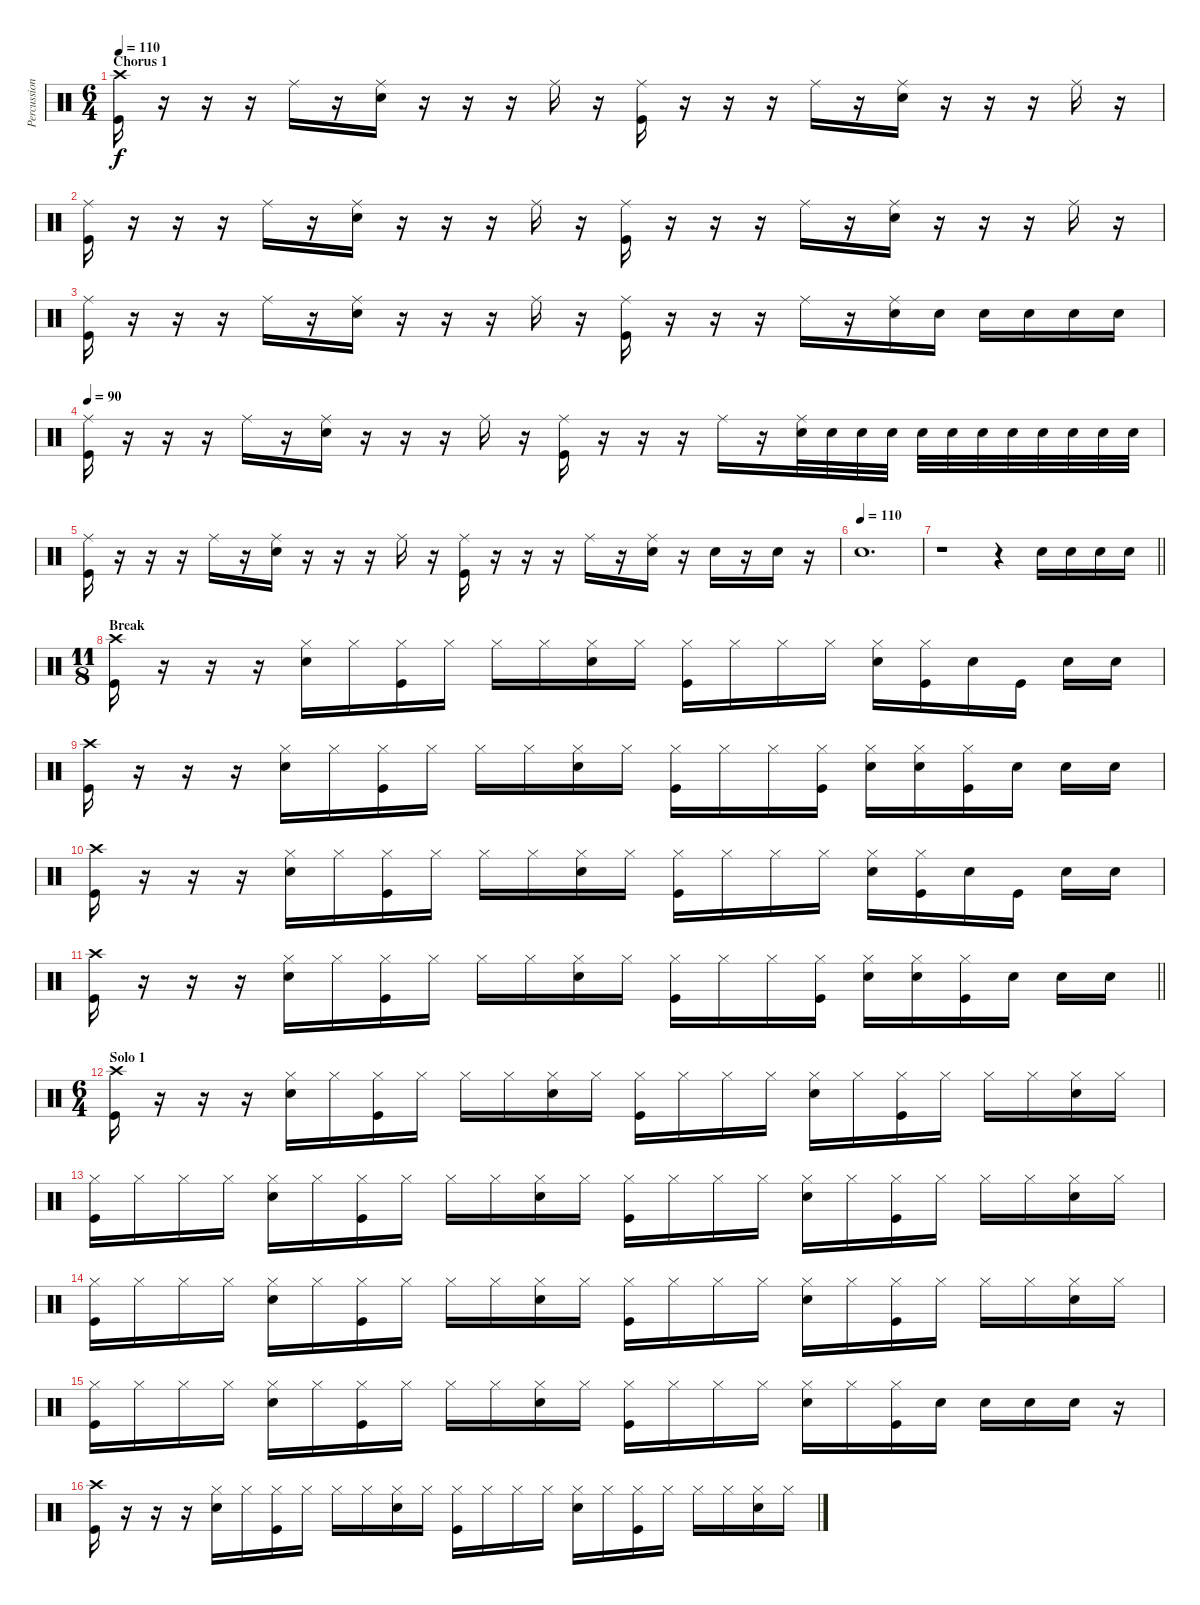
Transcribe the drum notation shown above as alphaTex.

\track ("Percussion 2" "Percussion") {instrument percussion}
\staff {score}
\articulation defaults
\ts (6 4)
\section ("" "Chorus 1")
\tempo 110
\clef neutral
\ks c
("Crash high (hit)" "Kick (hit)").16{dy f} r.16 r.16 r.16 "Ride (middle)".16 r.16 ("Ride (middle)" "Snare (hit) 2").16 r.16 r.16 r.16 "Ride (middle)".16 r.16 ("Ride (middle)" "Kick (hit)").16 r.16 r.16 r.16 "Ride (middle)".16 r.16 ("Ride (middle)" "Snare (hit) 2").16 r.16 r.16 r.16 "Ride (middle)".16 r.16 |
("Ride (middle)" "Kick (hit)").16 r.16 r.16 r.16 "Ride (middle)".16 r.16 ("Ride (middle)" "Snare (hit) 2").16 r.16 r.16 r.16 "Ride (middle)".16 r.16 ("Ride (middle)" "Kick (hit)").16 r.16 r.16 r.16 "Ride (middle)".16 r.16 ("Ride (middle)" "Snare (hit) 2").16 r.16 r.16 r.16 "Ride (middle)".16 r.16 |
("Ride (middle)" "Kick (hit)").16 r.16 r.16 r.16 "Ride (middle)".16 r.16 ("Ride (middle)" "Snare (hit) 2").16 r.16 r.16 r.16 "Ride (middle)".16 r.16 ("Ride (middle)" "Kick (hit)").16 r.16 r.16 r.16 "Ride (middle)".16 r.16 ("Ride (middle)" "Snare (hit) 2").16 "Snare (hit) 2".16 "Snare (hit) 2".16 "Snare (hit) 2".16 "Snare (hit) 2".16 "Snare (hit) 2".16 |
\tempo 90
("Ride (middle)" "Kick (hit)").16 r.16 r.16 r.16 "Ride (middle)".16 r.16 ("Ride (middle)" "Snare (hit) 2").16 r.16 r.16 r.16 "Ride (middle)".16 r.16 ("Ride (middle)" "Kick (hit)").16 r.16 r.16 r.16 "Ride (middle)".16 r.16 ("Ride (middle)" "Snare (hit) 2").32 "Snare (hit) 2".32 "Snare (hit) 2".32 "Snare (hit) 2".32 "Snare (hit) 2".32 "Snare (hit) 2".32 "Snare (hit) 2".32 "Snare (hit) 2".32 "Snare (hit) 2".32 "Snare (hit) 2".32 "Snare (hit) 2".32 "Snare (hit) 2".32 |
("Ride (middle)" "Kick (hit)").16 r.16 r.16 r.16 "Ride (middle)".16 r.16 ("Ride (middle)" "Snare (hit) 2").16 r.16 r.16 r.16 "Ride (middle)".16 r.16 ("Ride (middle)" "Kick (hit)").16 r.16 r.16 r.16 "Ride (middle)".16 r.16 ("Ride (middle)" "Snare (hit) 2").16 r.16 "Snare (hit) 2".16 r.16 "Snare (hit) 2".16 r.16 |
\tempo (110)
"Snare (hit) 2".1{d} |
\barLineRight lightlight
r.1 r.4 "Snare (hit) 2".16 "Snare (hit) 2".16 "Snare (hit) 2".16 "Snare (hit) 2".16 |
\ts (11 8)
\section ("" "Break")
("Crash high (hit)" "Kick (hit)").16 r.16 r.16 r.16 ("Hi-Hat (closed)" "Snare (hit) 2").16 "Hi-Hat (closed)".16 ("Hi-Hat (closed)" "Kick (hit)").16 "Hi-Hat (closed)".16 "Hi-Hat (closed)".16 "Hi-Hat (closed)".16 ("Hi-Hat (closed)" "Snare (hit) 2").16 "Hi-Hat (closed)".16 ("Hi-Hat (closed)" "Kick (hit)").16 "Hi-Hat (closed)".16 "Hi-Hat (closed)".16 "Hi-Hat (closed)".16 ("Hi-Hat (closed)" "Snare (hit) 2").16 ("Hi-Hat (closed)" "Kick (hit)").16 "Snare (hit) 2".16 "Kick (hit)".16 "Snare (hit) 2".16 "Snare (hit) 2".16 |
("Crash high (hit)" "Kick (hit)").16 r.16 r.16 r.16 ("Hi-Hat (closed)" "Snare (hit) 2").16 "Hi-Hat (closed)".16 ("Hi-Hat (closed)" "Kick (hit)").16 "Hi-Hat (closed)".16 "Hi-Hat (closed)".16 "Hi-Hat (closed)".16 ("Hi-Hat (closed)" "Snare (hit) 2").16 "Hi-Hat (closed)".16 ("Hi-Hat (closed)" "Kick (hit)").16 "Hi-Hat (closed)".16 "Hi-Hat (closed)".16 ("Hi-Hat (closed)" "Kick (hit)").16 ("Hi-Hat (closed)" "Snare (hit) 2").16 ("Hi-Hat (closed)" "Snare (hit) 2").16 ("Hi-Hat (closed)" "Kick (hit)").16 "Snare (hit) 2".16 "Snare (hit) 2".16 "Snare (hit) 2".16 |
("Crash high (hit)" "Kick (hit)").16 r.16 r.16 r.16 ("Hi-Hat (closed)" "Snare (hit) 2").16 "Hi-Hat (closed)".16 ("Hi-Hat (closed)" "Kick (hit)").16 "Hi-Hat (closed)".16 "Hi-Hat (closed)".16 "Hi-Hat (closed)".16 ("Hi-Hat (closed)" "Snare (hit) 2").16 "Hi-Hat (closed)".16 ("Hi-Hat (closed)" "Kick (hit)").16 "Hi-Hat (closed)".16 "Hi-Hat (closed)".16 "Hi-Hat (closed)".16 ("Hi-Hat (closed)" "Snare (hit) 2").16 ("Hi-Hat (closed)" "Kick (hit)").16 "Snare (hit) 2".16 "Kick (hit)".16 "Snare (hit) 2".16 "Snare (hit) 2".16 |
\barLineRight lightlight
("Crash high (hit)" "Kick (hit)").16 r.16 r.16 r.16 ("Hi-Hat (closed)" "Snare (hit) 2").16 "Hi-Hat (closed)".16 ("Hi-Hat (closed)" "Kick (hit)").16 "Hi-Hat (closed)".16 "Hi-Hat (closed)".16 "Hi-Hat (closed)".16 ("Hi-Hat (closed)" "Snare (hit) 2").16 "Hi-Hat (closed)".16 ("Hi-Hat (closed)" "Kick (hit)").16 "Hi-Hat (closed)".16 "Hi-Hat (closed)".16 ("Hi-Hat (closed)" "Kick (hit)").16 ("Hi-Hat (closed)" "Snare (hit) 2").16 ("Hi-Hat (closed)" "Snare (hit) 2").16 ("Hi-Hat (closed)" "Kick (hit)").16 "Snare (hit) 2".16 "Snare (hit) 2".16 "Snare (hit) 2".16 |
\ts (6 4)
\section ("" "Solo 1")
("Crash high (hit)" "Kick (hit)").16 r.16 r.16 r.16 ("Hi-Hat (closed)" "Snare (hit) 2").16 "Hi-Hat (closed)".16 ("Hi-Hat (closed)" "Kick (hit)").16 "Hi-Hat (closed)".16 "Hi-Hat (closed)".16 "Hi-Hat (closed)".16 ("Hi-Hat (closed)" "Snare (hit) 2").16 "Hi-Hat (closed)".16 ("Hi-Hat (closed)" "Kick (hit)").16 "Hi-Hat (closed)".16 "Hi-Hat (closed)".16 "Hi-Hat (closed)".16 ("Hi-Hat (closed)" "Snare (hit) 2").16 "Hi-Hat (closed)".16 ("Hi-Hat (closed)" "Kick (hit)").16 "Hi-Hat (closed)".16 "Hi-Hat (closed)".16 "Hi-Hat (closed)".16 ("Hi-Hat (closed)" "Snare (hit) 2").16 "Hi-Hat (closed)".16 |
("Hi-Hat (closed)" "Kick (hit)").16 "Hi-Hat (closed)".16 "Hi-Hat (closed)".16 "Hi-Hat (closed)".16 ("Hi-Hat (closed)" "Snare (hit) 2").16 "Hi-Hat (closed)".16 ("Hi-Hat (closed)" "Kick (hit)").16 "Hi-Hat (closed)".16 "Hi-Hat (closed)".16 "Hi-Hat (closed)".16 ("Hi-Hat (closed)" "Snare (hit) 2").16 "Hi-Hat (closed)".16 ("Hi-Hat (closed)" "Kick (hit)").16 "Hi-Hat (closed)".16 "Hi-Hat (closed)".16 "Hi-Hat (closed)".16 ("Hi-Hat (closed)" "Snare (hit) 2").16 "Hi-Hat (closed)".16 ("Hi-Hat (closed)" "Kick (hit)").16 "Hi-Hat (closed)".16 "Hi-Hat (closed)".16 "Hi-Hat (closed)".16 ("Hi-Hat (closed)" "Snare (hit) 2").16 "Hi-Hat (closed)".16 |
("Hi-Hat (closed)" "Kick (hit)").16 "Hi-Hat (closed)".16 "Hi-Hat (closed)".16 "Hi-Hat (closed)".16 ("Hi-Hat (closed)" "Snare (hit) 2").16 "Hi-Hat (closed)".16 ("Hi-Hat (closed)" "Kick (hit)").16 "Hi-Hat (closed)".16 "Hi-Hat (closed)".16 "Hi-Hat (closed)".16 ("Hi-Hat (closed)" "Snare (hit) 2").16 "Hi-Hat (closed)".16 ("Hi-Hat (closed)" "Kick (hit)").16 "Hi-Hat (closed)".16 "Hi-Hat (closed)".16 "Hi-Hat (closed)".16 ("Hi-Hat (closed)" "Snare (hit) 2").16 "Hi-Hat (closed)".16 ("Hi-Hat (closed)" "Kick (hit)").16 "Hi-Hat (closed)".16 "Hi-Hat (closed)".16 "Hi-Hat (closed)".16 ("Hi-Hat (closed)" "Snare (hit) 2").16 "Hi-Hat (closed)".16 |
("Hi-Hat (closed)" "Kick (hit)").16 "Hi-Hat (closed)".16 "Hi-Hat (closed)".16 "Hi-Hat (closed)".16 ("Hi-Hat (closed)" "Snare (hit) 2").16 "Hi-Hat (closed)".16 ("Hi-Hat (closed)" "Kick (hit)").16 "Hi-Hat (closed)".16 "Hi-Hat (closed)".16 "Hi-Hat (closed)".16 ("Hi-Hat (closed)" "Snare (hit) 2").16 "Hi-Hat (closed)".16 ("Hi-Hat (closed)" "Kick (hit)").16 "Hi-Hat (closed)".16 "Hi-Hat (closed)".16 "Hi-Hat (closed)".16 ("Hi-Hat (closed)" "Snare (hit) 2").16 "Hi-Hat (closed)".16 ("Hi-Hat (closed)" "Kick (hit)").16 "Snare (hit) 2".16 "Snare (hit) 2".16 "Snare (hit) 2".16 "Snare (hit) 2".16 r.16 |
("Crash high (hit)" "Kick (hit)").16 r.16 r.16 r.16 ("Hi-Hat (closed)" "Snare (hit) 2").16 "Hi-Hat (closed)".16 ("Hi-Hat (closed)" "Kick (hit)").16 "Hi-Hat (closed)".16 "Hi-Hat (closed)".16 "Hi-Hat (closed)".16 ("Hi-Hat (closed)" "Snare (hit) 2").16 "Hi-Hat (closed)".16 ("Hi-Hat (closed)" "Kick (hit)").16 "Hi-Hat (closed)".16 "Hi-Hat (closed)".16 "Hi-Hat (closed)".16 ("Hi-Hat (closed)" "Snare (hit) 2").16 "Hi-Hat (closed)".16 ("Hi-Hat (closed)" "Kick (hit)").16 "Hi-Hat (closed)".16 "Hi-Hat (closed)".16 "Hi-Hat (closed)".16 ("Hi-Hat (closed)" "Snare (hit) 2").16 "Hi-Hat (closed)".16
